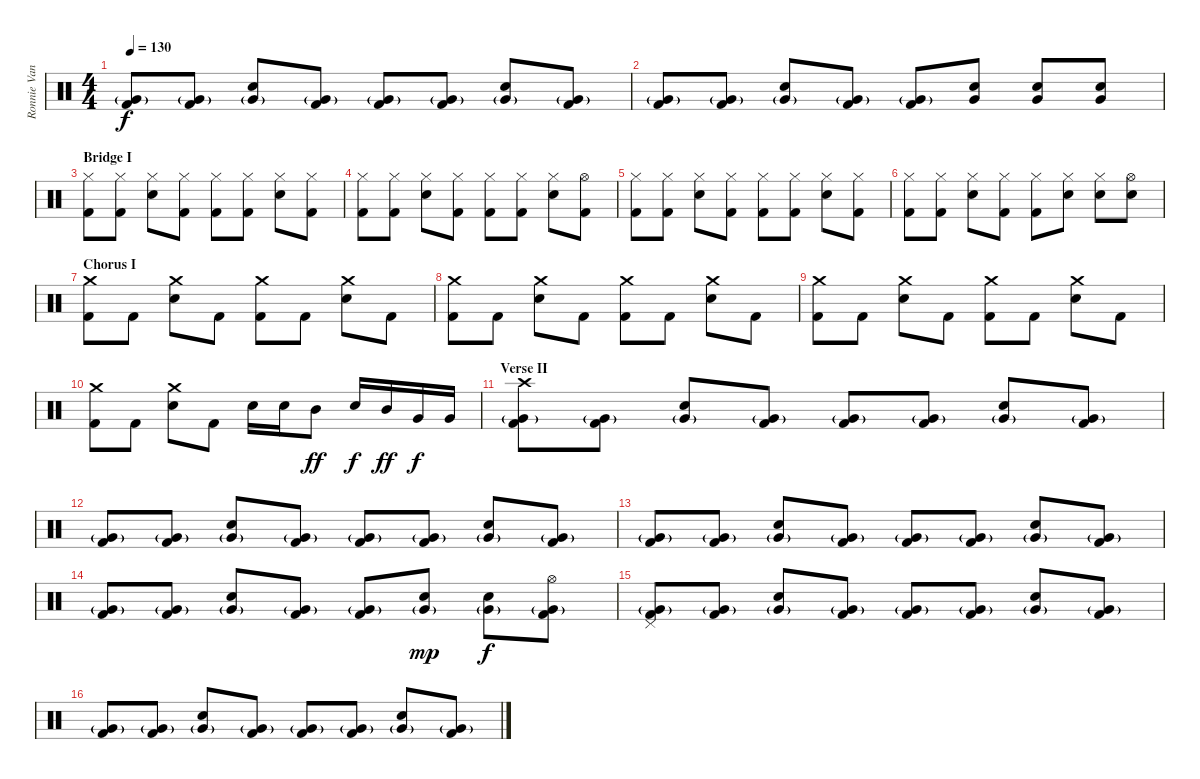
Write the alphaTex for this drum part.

\track ("Ronnie Vannucci Jr." "Ronnie Van") {instrument percussion}
\staff {score}
\articulation defaults
\ts (4 4)
\tempo 130
\clef neutral
\ks c
("Very Low Tom (hit)"{g} "Kick (hit) 2").8{dy f} ("Very Low Tom (hit)"{g} "Kick (hit) 2").8 ("Very Low Tom (hit)"{g} "Electric Snare (hit)").8 ("Very Low Tom (hit)"{g} "Kick (hit) 2").8 ("Very Low Tom (hit)"{g} "Kick (hit) 2").8 ("Very Low Tom (hit)"{g} "Kick (hit) 2").8 ("Very Low Tom (hit)"{g} "Electric Snare (hit)").8 ("Very Low Tom (hit)"{g} "Kick (hit) 2").8 |
("Very Low Tom (hit)"{g} "Kick (hit) 2").8 ("Very Low Tom (hit)"{g} "Kick (hit) 2").8 ("Very Low Tom (hit)"{g} "Electric Snare (hit)").8 ("Very Low Tom (hit)"{g} "Kick (hit) 2").8 ("Very Low Tom (hit)"{g} "Kick (hit) 2").8 ("Very Low Tom (hit)" "Electric Snare (hit)").8 ("Very Low Tom (hit)" "Electric Snare (hit)").8 ("Very Low Tom (hit)" "Electric Snare (hit)").8 |
\section ("" "Bridge I")
("Hi-Hat (closed)" "Kick (hit) 2").8 ("Hi-Hat (closed)" "Kick (hit) 2").8 ("Hi-Hat (closed)" "Electric Snare (hit)").8 ("Hi-Hat (closed)" "Kick (hit) 2").8 ("Hi-Hat (closed)" "Kick (hit) 2").8 ("Hi-Hat (closed)" "Kick (hit) 2").8 ("Hi-Hat (closed)" "Electric Snare (hit)").8 ("Hi-Hat (closed)" "Kick (hit) 2").8 |
("Hi-Hat (closed)" "Kick (hit) 2").8 ("Hi-Hat (closed)" "Kick (hit) 2").8 ("Hi-Hat (closed)" "Electric Snare (hit)").8 ("Hi-Hat (closed)" "Kick (hit) 2").8 ("Hi-Hat (closed)" "Kick (hit) 2").8 ("Hi-Hat (closed)" "Kick (hit) 2").8 ("Hi-Hat (closed)" "Electric Snare (hit)").8 ("Hi-Hat (open)" "Kick (hit) 2").8 |
("Hi-Hat (closed)" "Kick (hit) 2").8 ("Hi-Hat (closed)" "Kick (hit) 2").8 ("Hi-Hat (closed)" "Electric Snare (hit)").8 ("Hi-Hat (closed)" "Kick (hit) 2").8 ("Hi-Hat (closed)" "Kick (hit) 2").8 ("Hi-Hat (closed)" "Kick (hit) 2").8 ("Hi-Hat (closed)" "Electric Snare (hit)").8 ("Hi-Hat (closed)" "Kick (hit) 2").8 |
("Hi-Hat (closed)" "Kick (hit) 2").8 ("Hi-Hat (closed)" "Kick (hit) 2").8 ("Hi-Hat (closed)" "Electric Snare (hit)").8 ("Hi-Hat (closed)" "Kick (hit) 2").8 ("Hi-Hat (closed)" "Kick (hit) 2").8 ("Hi-Hat (closed)" "Electric Snare (hit)").8 ("Hi-Hat (closed)" "Electric Snare (hit)").8 ("Hi-Hat (open)" "Electric Snare (hit)").8 |
\section ("" "Chorus I")
("Crash medium (hit)" "Kick (hit) 2").8 "Kick (hit) 2".8 ("Crash medium (hit)" "Electric Snare (hit)").8 "Kick (hit) 2".8 ("Crash medium (hit)" "Kick (hit) 2").8 "Kick (hit) 2".8 ("Crash medium (hit)" "Electric Snare (hit)").8 "Kick (hit) 2".8 |
("Crash medium (hit)" "Kick (hit) 2").8 "Kick (hit) 2".8 ("Crash medium (hit)" "Electric Snare (hit)").8 "Kick (hit) 2".8 ("Crash medium (hit)" "Kick (hit) 2").8 "Kick (hit) 2".8 ("Crash medium (hit)" "Electric Snare (hit)").8 "Kick (hit) 2".8 |
("Crash medium (hit)" "Kick (hit) 2").8 "Kick (hit) 2".8 ("Crash medium (hit)" "Electric Snare (hit)").8 "Kick (hit) 2".8 ("Crash medium (hit)" "Kick (hit) 2").8 "Kick (hit) 2".8 ("Crash medium (hit)" "Electric Snare (hit)").8 "Kick (hit) 2".8 |
("Crash medium (hit)" "Kick (hit) 2").8 "Kick (hit) 2".8 ("Crash medium (hit)" "Electric Snare (hit)").8 "Kick (hit) 2".8 "Electric Snare (hit)".16 "Electric Snare (hit)".16 "Mid Tom (hit)".8{dy ff} "Electric Snare (hit)".16{dy f} "Mid Tom (hit)".16{dy ff} "Very Low Tom (hit)".16{dy f} "Very Low Tom (hit)".16 |
\section ("" "Verse II")
("Crash high (hit)" "Very Low Tom (hit)"{g} "Kick (hit) 2").8 ("Very Low Tom (hit)"{g} "Kick (hit) 2").8 ("Very Low Tom (hit)"{g} "Electric Snare (hit)").8 ("Very Low Tom (hit)"{g} "Kick (hit) 2").8 ("Very Low Tom (hit)"{g} "Kick (hit) 2").8 ("Very Low Tom (hit)"{g} "Kick (hit) 2").8 ("Very Low Tom (hit)"{g} "Electric Snare (hit)").8 ("Very Low Tom (hit)"{g} "Kick (hit) 2").8 |
("Very Low Tom (hit)"{g} "Kick (hit) 2").8 ("Very Low Tom (hit)"{g} "Kick (hit) 2").8 ("Very Low Tom (hit)"{g} "Electric Snare (hit)").8 ("Very Low Tom (hit)"{g} "Kick (hit) 2").8 ("Very Low Tom (hit)"{g} "Kick (hit) 2").8 ("Very Low Tom (hit)"{g} "Kick (hit) 2").8 ("Very Low Tom (hit)"{g} "Electric Snare (hit)").8 ("Very Low Tom (hit)"{g} "Kick (hit) 2").8 |
("Very Low Tom (hit)"{g} "Kick (hit) 2").8 ("Very Low Tom (hit)"{g} "Kick (hit) 2").8 ("Very Low Tom (hit)"{g} "Electric Snare (hit)").8 ("Very Low Tom (hit)"{g} "Kick (hit) 2").8 ("Very Low Tom (hit)"{g} "Kick (hit) 2").8 ("Very Low Tom (hit)"{g} "Kick (hit) 2").8 ("Very Low Tom (hit)"{g} "Electric Snare (hit)").8 ("Very Low Tom (hit)"{g} "Kick (hit) 2").8 |
("Very Low Tom (hit)"{g} "Kick (hit) 2").8 ("Very Low Tom (hit)"{g} "Kick (hit) 2").8 ("Very Low Tom (hit)"{g} "Electric Snare (hit)").8 ("Very Low Tom (hit)"{g} "Kick (hit) 2").8 ("Very Low Tom (hit)"{g} "Kick (hit) 2").8 ("Very Low Tom (hit)"{g} "Electric Snare (hit)").8{dy mp} ("Very Low Tom (hit)"{g} "Electric Snare (hit)").8{dy f} ("Hi-Hat (open)" "Very Low Tom (hit)"{g} "Kick (hit) 2").8 |
("Pedal Hi-Hat (hit)" "Very Low Tom (hit)"{g} "Kick (hit) 2").8 ("Very Low Tom (hit)"{g} "Kick (hit) 2").8 ("Very Low Tom (hit)"{g} "Electric Snare (hit)").8 ("Very Low Tom (hit)"{g} "Kick (hit) 2").8 ("Very Low Tom (hit)"{g} "Kick (hit) 2").8 ("Very Low Tom (hit)"{g} "Kick (hit) 2").8 ("Very Low Tom (hit)"{g} "Electric Snare (hit)").8 ("Very Low Tom (hit)"{g} "Kick (hit) 2").8 |
("Very Low Tom (hit)"{g} "Kick (hit) 2").8 ("Very Low Tom (hit)"{g} "Kick (hit) 2").8 ("Very Low Tom (hit)"{g} "Electric Snare (hit)").8 ("Very Low Tom (hit)"{g} "Kick (hit) 2").8 ("Very Low Tom (hit)"{g} "Kick (hit) 2").8 ("Very Low Tom (hit)"{g} "Kick (hit) 2").8 ("Very Low Tom (hit)"{g} "Electric Snare (hit)").8 ("Very Low Tom (hit)"{g} "Kick (hit) 2").8
